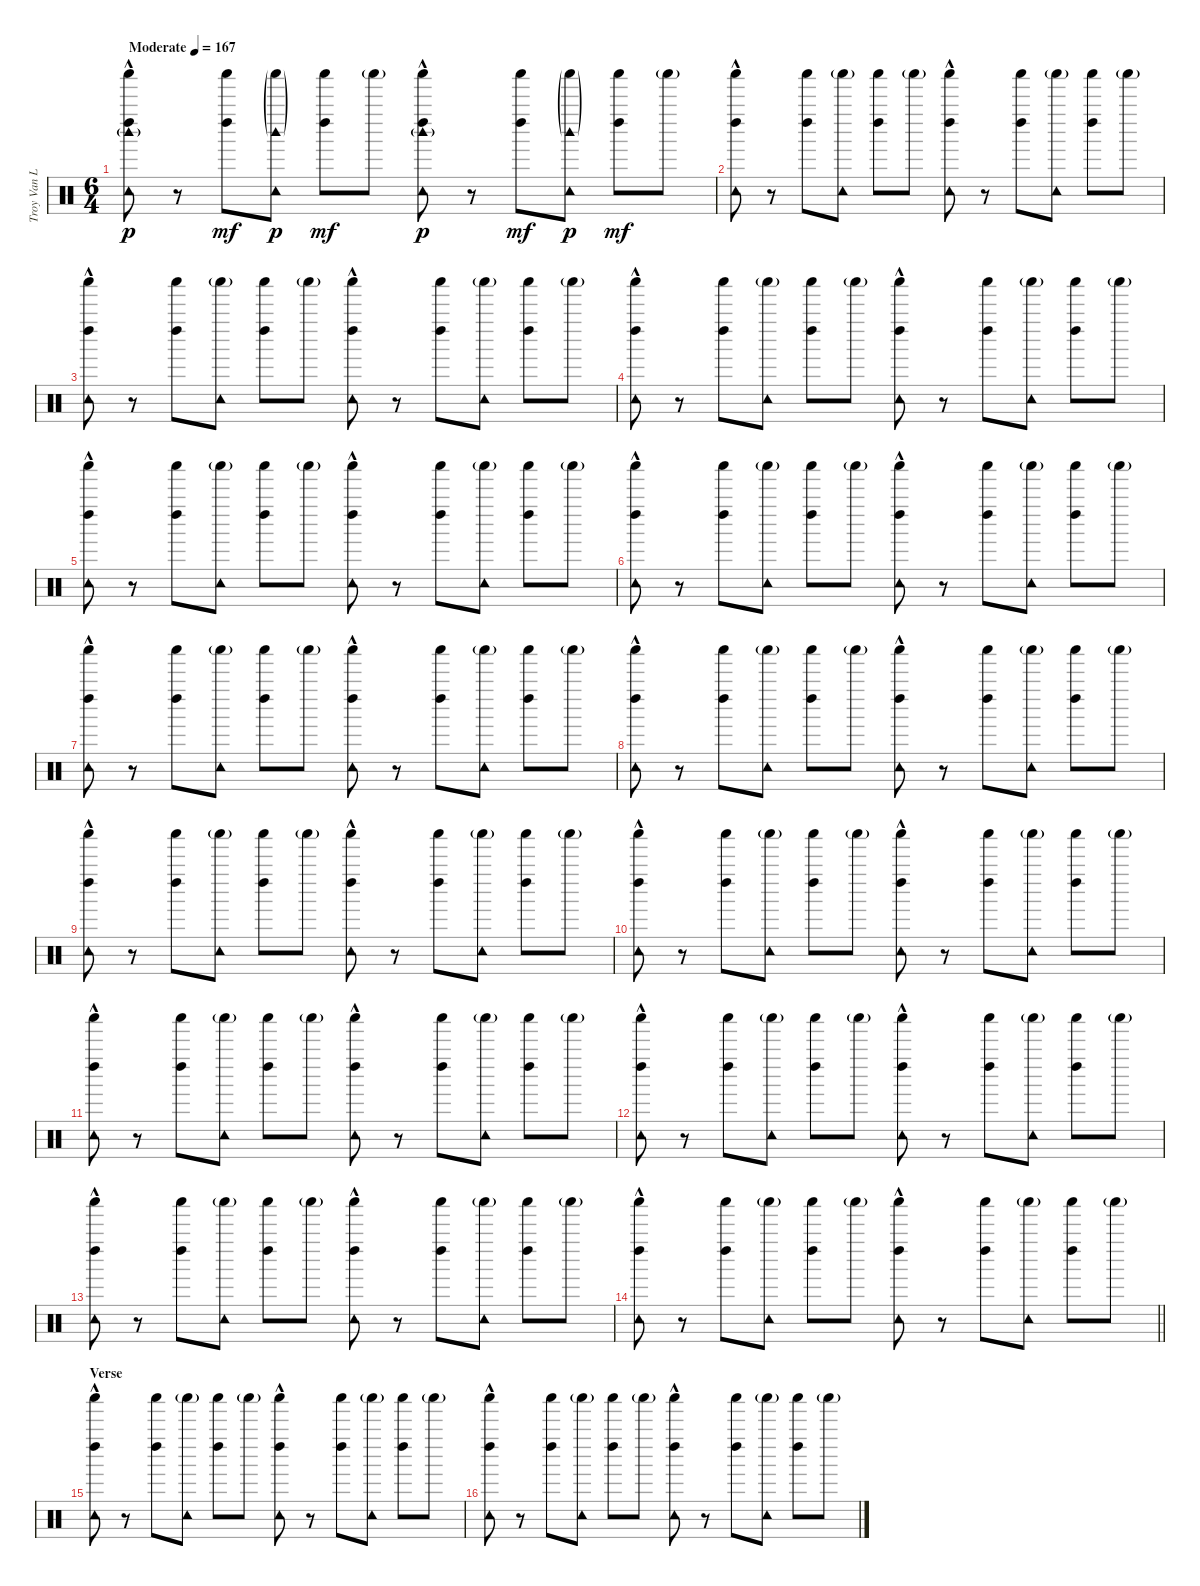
\track ("Troy Van Leeuwen (live)" "Troy Van L") {instrument percussion}
\staff {score}
\articulation defaults
\ts (6 4)
\tempo (167 "Moderate")
\clef neutral
\ks c
("Tambourine (hit)" "Left Maraca (hit)" "Shaker (hit)"{hac} "Woodblock high (hit)"{g}).8{dy p} r.8 ("Left Maraca (hit)" "Shaker (hit)").8{dy mf} ("Tambourine (hit)" "Shaker (hit)"{g} "Woodblock high (hit)"{g}).8{dy p} ("Left Maraca (hit)" "Shaker (hit)").8{dy mf} "Shaker (hit)"{g}.8 ("Tambourine (hit)" "Left Maraca (hit)" "Shaker (hit)"{hac} "Woodblock high (hit)"{g}).8{dy p} r.8 ("Left Maraca (hit)" "Shaker (hit)").8{dy mf} ("Tambourine (hit)" "Shaker (hit)"{g} "Woodblock high (hit)"{g}).8{dy p} ("Left Maraca (hit)" "Shaker (hit)").8{dy mf} "Shaker (hit)"{g}.8 |
("Tambourine (hit)" "Left Maraca (hit)" "Shaker (hit)"{hac}).8 r.8 ("Left Maraca (hit)" "Shaker (hit)").8 ("Tambourine (hit)" "Shaker (hit)"{g}).8 ("Left Maraca (hit)" "Shaker (hit)").8 "Shaker (hit)"{g}.8 ("Tambourine (hit)" "Left Maraca (hit)" "Shaker (hit)"{hac}).8 r.8 ("Left Maraca (hit)" "Shaker (hit)").8 ("Tambourine (hit)" "Shaker (hit)"{g}).8 ("Left Maraca (hit)" "Shaker (hit)").8 "Shaker (hit)"{g}.8 |
("Tambourine (hit)" "Left Maraca (hit)" "Shaker (hit)"{hac}).8 r.8 ("Left Maraca (hit)" "Shaker (hit)").8 ("Tambourine (hit)" "Shaker (hit)"{g}).8 ("Left Maraca (hit)" "Shaker (hit)").8 "Shaker (hit)"{g}.8 ("Tambourine (hit)" "Left Maraca (hit)" "Shaker (hit)"{hac}).8 r.8 ("Left Maraca (hit)" "Shaker (hit)").8 ("Tambourine (hit)" "Shaker (hit)"{g}).8 ("Left Maraca (hit)" "Shaker (hit)").8 "Shaker (hit)"{g}.8 |
("Tambourine (hit)" "Left Maraca (hit)" "Shaker (hit)"{hac}).8 r.8 ("Left Maraca (hit)" "Shaker (hit)").8 ("Tambourine (hit)" "Shaker (hit)"{g}).8 ("Left Maraca (hit)" "Shaker (hit)").8 "Shaker (hit)"{g}.8 ("Tambourine (hit)" "Left Maraca (hit)" "Shaker (hit)"{hac}).8 r.8 ("Left Maraca (hit)" "Shaker (hit)").8 ("Tambourine (hit)" "Shaker (hit)"{g}).8 ("Left Maraca (hit)" "Shaker (hit)").8 "Shaker (hit)"{g}.8 |
("Tambourine (hit)" "Left Maraca (hit)" "Shaker (hit)"{hac}).8 r.8 ("Left Maraca (hit)" "Shaker (hit)").8 ("Tambourine (hit)" "Shaker (hit)"{g}).8 ("Left Maraca (hit)" "Shaker (hit)").8 "Shaker (hit)"{g}.8 ("Tambourine (hit)" "Left Maraca (hit)" "Shaker (hit)"{hac}).8 r.8 ("Left Maraca (hit)" "Shaker (hit)").8 ("Tambourine (hit)" "Shaker (hit)"{g}).8 ("Left Maraca (hit)" "Shaker (hit)").8 "Shaker (hit)"{g}.8 |
("Tambourine (hit)" "Left Maraca (hit)" "Shaker (hit)"{hac}).8 r.8 ("Left Maraca (hit)" "Shaker (hit)").8 ("Tambourine (hit)" "Shaker (hit)"{g}).8 ("Left Maraca (hit)" "Shaker (hit)").8 "Shaker (hit)"{g}.8 ("Tambourine (hit)" "Left Maraca (hit)" "Shaker (hit)"{hac}).8 r.8 ("Left Maraca (hit)" "Shaker (hit)").8 ("Tambourine (hit)" "Shaker (hit)"{g}).8 ("Left Maraca (hit)" "Shaker (hit)").8 "Shaker (hit)"{g}.8 |
("Tambourine (hit)" "Left Maraca (hit)" "Shaker (hit)"{hac}).8 r.8 ("Left Maraca (hit)" "Shaker (hit)").8 ("Tambourine (hit)" "Shaker (hit)"{g}).8 ("Left Maraca (hit)" "Shaker (hit)").8 "Shaker (hit)"{g}.8 ("Tambourine (hit)" "Left Maraca (hit)" "Shaker (hit)"{hac}).8 r.8 ("Left Maraca (hit)" "Shaker (hit)").8 ("Tambourine (hit)" "Shaker (hit)"{g}).8 ("Left Maraca (hit)" "Shaker (hit)").8 "Shaker (hit)"{g}.8 |
("Tambourine (hit)" "Left Maraca (hit)" "Shaker (hit)"{hac}).8 r.8 ("Left Maraca (hit)" "Shaker (hit)").8 ("Tambourine (hit)" "Shaker (hit)"{g}).8 ("Left Maraca (hit)" "Shaker (hit)").8 "Shaker (hit)"{g}.8 ("Tambourine (hit)" "Left Maraca (hit)" "Shaker (hit)"{hac}).8 r.8 ("Left Maraca (hit)" "Shaker (hit)").8 ("Tambourine (hit)" "Shaker (hit)"{g}).8 ("Left Maraca (hit)" "Shaker (hit)").8 "Shaker (hit)"{g}.8 |
("Tambourine (hit)" "Left Maraca (hit)" "Shaker (hit)"{hac}).8 r.8 ("Left Maraca (hit)" "Shaker (hit)").8 ("Tambourine (hit)" "Shaker (hit)"{g}).8 ("Left Maraca (hit)" "Shaker (hit)").8 "Shaker (hit)"{g}.8 ("Tambourine (hit)" "Left Maraca (hit)" "Shaker (hit)"{hac}).8 r.8 ("Left Maraca (hit)" "Shaker (hit)").8 ("Tambourine (hit)" "Shaker (hit)"{g}).8 ("Left Maraca (hit)" "Shaker (hit)").8 "Shaker (hit)"{g}.8 |
("Tambourine (hit)" "Left Maraca (hit)" "Shaker (hit)"{hac}).8 r.8 ("Left Maraca (hit)" "Shaker (hit)").8 ("Tambourine (hit)" "Shaker (hit)"{g}).8 ("Left Maraca (hit)" "Shaker (hit)").8 "Shaker (hit)"{g}.8 ("Tambourine (hit)" "Left Maraca (hit)" "Shaker (hit)"{hac}).8 r.8 ("Left Maraca (hit)" "Shaker (hit)").8 ("Tambourine (hit)" "Shaker (hit)"{g}).8 ("Left Maraca (hit)" "Shaker (hit)").8 "Shaker (hit)"{g}.8 |
("Tambourine (hit)" "Left Maraca (hit)" "Shaker (hit)"{hac}).8 r.8 ("Left Maraca (hit)" "Shaker (hit)").8 ("Tambourine (hit)" "Shaker (hit)"{g}).8 ("Left Maraca (hit)" "Shaker (hit)").8 "Shaker (hit)"{g}.8 ("Tambourine (hit)" "Left Maraca (hit)" "Shaker (hit)"{hac}).8 r.8 ("Left Maraca (hit)" "Shaker (hit)").8 ("Tambourine (hit)" "Shaker (hit)"{g}).8 ("Left Maraca (hit)" "Shaker (hit)").8 "Shaker (hit)"{g}.8 |
("Tambourine (hit)" "Left Maraca (hit)" "Shaker (hit)"{hac}).8 r.8 ("Left Maraca (hit)" "Shaker (hit)").8 ("Tambourine (hit)" "Shaker (hit)"{g}).8 ("Left Maraca (hit)" "Shaker (hit)").8 "Shaker (hit)"{g}.8 ("Tambourine (hit)" "Left Maraca (hit)" "Shaker (hit)"{hac}).8 r.8 ("Left Maraca (hit)" "Shaker (hit)").8 ("Tambourine (hit)" "Shaker (hit)"{g}).8 ("Left Maraca (hit)" "Shaker (hit)").8 "Shaker (hit)"{g}.8 |
("Tambourine (hit)" "Left Maraca (hit)" "Shaker (hit)"{hac}).8 r.8 ("Left Maraca (hit)" "Shaker (hit)").8 ("Tambourine (hit)" "Shaker (hit)"{g}).8 ("Left Maraca (hit)" "Shaker (hit)").8 "Shaker (hit)"{g}.8 ("Tambourine (hit)" "Left Maraca (hit)" "Shaker (hit)"{hac}).8 r.8 ("Left Maraca (hit)" "Shaker (hit)").8 ("Tambourine (hit)" "Shaker (hit)"{g}).8 ("Left Maraca (hit)" "Shaker (hit)").8 "Shaker (hit)"{g}.8 |
\barLineRight lightlight
("Tambourine (hit)" "Left Maraca (hit)" "Shaker (hit)"{hac}).8 r.8 ("Left Maraca (hit)" "Shaker (hit)").8 ("Tambourine (hit)" "Shaker (hit)"{g}).8 ("Left Maraca (hit)" "Shaker (hit)").8 "Shaker (hit)"{g}.8 ("Tambourine (hit)" "Left Maraca (hit)" "Shaker (hit)"{hac}).8 r.8 ("Left Maraca (hit)" "Shaker (hit)").8 ("Tambourine (hit)" "Shaker (hit)"{g}).8 ("Left Maraca (hit)" "Shaker (hit)").8 "Shaker (hit)"{g}.8 |
\section ("" "Verse")
("Tambourine (hit)" "Left Maraca (hit)" "Shaker (hit)"{hac}).8 r.8 ("Left Maraca (hit)" "Shaker (hit)").8 ("Tambourine (hit)" "Shaker (hit)"{g}).8 ("Left Maraca (hit)" "Shaker (hit)").8 "Shaker (hit)"{g}.8 ("Tambourine (hit)" "Left Maraca (hit)" "Shaker (hit)"{hac}).8 r.8 ("Left Maraca (hit)" "Shaker (hit)").8 ("Tambourine (hit)" "Shaker (hit)"{g}).8 ("Left Maraca (hit)" "Shaker (hit)").8 "Shaker (hit)"{g}.8 |
("Tambourine (hit)" "Left Maraca (hit)" "Shaker (hit)"{hac}).8 r.8 ("Left Maraca (hit)" "Shaker (hit)").8 ("Tambourine (hit)" "Shaker (hit)"{g}).8 ("Left Maraca (hit)" "Shaker (hit)").8 "Shaker (hit)"{g}.8 ("Tambourine (hit)" "Left Maraca (hit)" "Shaker (hit)"{hac}).8 r.8 ("Left Maraca (hit)" "Shaker (hit)").8 ("Tambourine (hit)" "Shaker (hit)"{g}).8 ("Left Maraca (hit)" "Shaker (hit)").8 "Shaker (hit)"{g}.8
